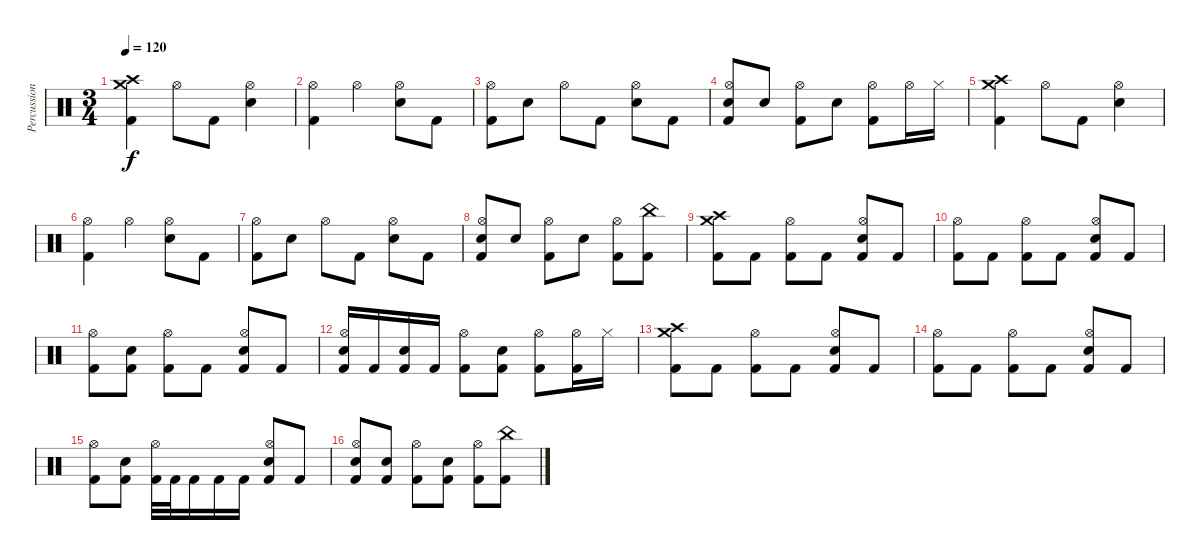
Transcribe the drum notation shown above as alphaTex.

\track ("Percussion" "Percussion") {instrument percussion}
\staff {score}
\articulation defaults
\ts (3 4)
\tempo 120
\clef neutral
\ks c
("Crash high (hit)" "Crash medium (hit)" "Kick (hit) 2").4{dy f} "Hi-Hat (open)".8 "Kick (hit) 2".8 ("Hi-Hat (open)" "Electric Snare (hit)").4 |
("Hi-Hat (open)" "Kick (hit) 2").4 "Hi-Hat (open)".4 ("Hi-Hat (open)" "Electric Snare (hit)").8 "Kick (hit) 2".8 |
("Hi-Hat (open)" "Kick (hit) 2").8 "Electric Snare (hit)".8 "Hi-Hat (open)".8 "Kick (hit) 2".8 ("Hi-Hat (open)" "Electric Snare (hit)").8 "Kick (hit) 2".8 |
("Hi-Hat (open)" "Electric Snare (hit)" "Kick (hit) 2").8 "Electric Snare (hit)".8 ("Hi-Hat (open)" "Kick (hit) 2").8 "Electric Snare (hit)".8 ("Hi-Hat (open)" "Kick (hit) 2").8 "Hi-Hat (open)".16 "Hi-Hat (closed)".16 |
("Crash high (hit)" "Crash medium (hit)" "Kick (hit) 2").4 "Hi-Hat (open)".8 "Kick (hit) 2".8 ("Hi-Hat (open)" "Electric Snare (hit)").4 |
("Hi-Hat (open)" "Kick (hit) 2").4 "Hi-Hat (open)".4 ("Hi-Hat (open)" "Electric Snare (hit)").8 "Kick (hit) 2".8 |
("Hi-Hat (open)" "Kick (hit) 2").8 "Electric Snare (hit)".8 "Hi-Hat (open)".8 "Kick (hit) 2".8 ("Hi-Hat (open)" "Electric Snare (hit)").8 "Kick (hit) 2".8 |
("Hi-Hat (open)" "Electric Snare (hit)" "Kick (hit) 2").8 "Electric Snare (hit)".8 ("Hi-Hat (open)" "Kick (hit) 2").8 "Electric Snare (hit)".8 ("Hi-Hat (open)" "Kick (hit) 2").8 ("China (hit)" "Kick (hit) 2").8 |
("Crash high (hit)" "Crash medium (hit)" "Kick (hit) 2").8 "Kick (hit) 2".8 ("Hi-Hat (open)" "Kick (hit) 2").8 "Kick (hit) 2".8 ("Hi-Hat (open)" "Electric Snare (hit)" "Kick (hit) 2").8 "Kick (hit) 2".8 |
("Hi-Hat (open)" "Kick (hit) 2").8 "Kick (hit) 2".8 ("Hi-Hat (open)" "Kick (hit) 2").8 "Kick (hit) 2".8 ("Hi-Hat (open)" "Electric Snare (hit)" "Kick (hit) 2").8 "Kick (hit) 2".8 |
("Hi-Hat (open)" "Kick (hit) 2").8 ("Electric Snare (hit)" "Kick (hit) 2").8 ("Hi-Hat (open)" "Kick (hit) 2").8 "Kick (hit) 2".8 ("Hi-Hat (open)" "Electric Snare (hit)" "Kick (hit) 2").8 "Kick (hit) 2".8 |
("Hi-Hat (open)" "Electric Snare (hit)" "Kick (hit) 2").16 "Kick (hit) 2".16 ("Electric Snare (hit)" "Kick (hit) 2").16 "Kick (hit) 2".16 ("Hi-Hat (open)" "Kick (hit) 2").8 ("Electric Snare (hit)" "Kick (hit) 2").8 ("Hi-Hat (open)" "Kick (hit) 2").8 ("Hi-Hat (open)" "Kick (hit) 2").16 "Hi-Hat (closed)".16 |
("Crash high (hit)" "Crash medium (hit)" "Kick (hit) 2").8 "Kick (hit) 2".8 ("Hi-Hat (open)" "Kick (hit) 2").8 "Kick (hit) 2".8 ("Hi-Hat (open)" "Electric Snare (hit)" "Kick (hit) 2").8 "Kick (hit) 2".8 |
("Hi-Hat (open)" "Kick (hit) 2").8 "Kick (hit) 2".8 ("Hi-Hat (open)" "Kick (hit) 2").8 "Kick (hit) 2".8 ("Hi-Hat (open)" "Electric Snare (hit)" "Kick (hit) 2").8 "Kick (hit) 2".8 |
("Hi-Hat (open)" "Kick (hit) 2").8 ("Electric Snare (hit)" "Kick (hit) 2").8 ("Hi-Hat (open)" "Kick (hit) 2").32 "Kick (hit) 2".32 "Kick (hit) 2".16 "Kick (hit) 2".16 "Kick (hit) 2".16 ("Hi-Hat (open)" "Electric Snare (hit)" "Kick (hit) 2").8 "Kick (hit) 2".8 |
("Hi-Hat (open)" "Electric Snare (hit)" "Kick (hit) 2").8 ("Electric Snare (hit)" "Kick (hit) 2").8 ("Hi-Hat (open)" "Kick (hit) 2").8 ("Electric Snare (hit)" "Kick (hit) 2").8 ("Hi-Hat (open)" "Kick (hit) 2").8 ("China (hit)" "Kick (hit) 2").8
